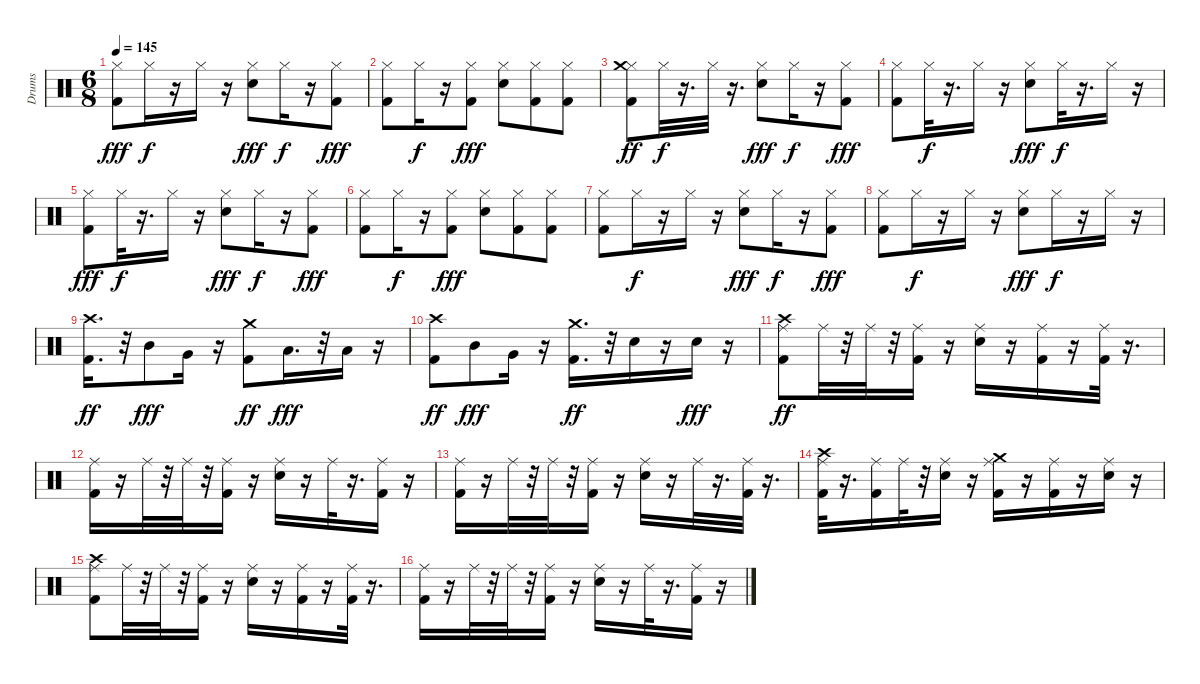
\track ("Drums" "Drums") {instrument percussion}
\staff {score}
\articulation defaults
\ts (6 8)
\tempo 145
\clef neutral
\ks c
("Kick (hit) 2" "Hi-Hat (closed)").8{dy fff} "Hi-Hat (closed)".16{dy f} r.16 "Hi-Hat (closed)".16 r.16 ("Snare (hit) 2" "Hi-Hat (closed)").8{dy fff} "Hi-Hat (closed)".16{dy f} r.16 ("Kick (hit) 2" "Hi-Hat (closed)").8{dy fff} |
("Kick (hit) 2" "Hi-Hat (closed)").8 "Hi-Hat (closed)".16{dy f} r.16 ("Kick (hit) 2" "Hi-Hat (closed)").8{dy fff} ("Snare (hit) 2" "Hi-Hat (closed)").8 ("Kick (hit) 2" "Hi-Hat (closed)").8 ("Kick (hit) 2" "Hi-Hat (closed)").8 |
("Kick (hit) 2" "Hi-Hat (closed)" "Crash medium (hit)").8{dy ff} "Hi-Hat (closed)".32{dy f} r.16{d} "Hi-Hat (closed)".32 r.16{d} ("Snare (hit) 2" "Hi-Hat (closed)").8{dy fff} "Hi-Hat (closed)".16{dy f} r.16 ("Kick (hit) 2" "Hi-Hat (closed)").8{dy fff} |
("Kick (hit) 2" "Hi-Hat (closed)").8 "Hi-Hat (closed)".32{dy f} r.16{d} "Hi-Hat (closed)".16 r.16 ("Snare (hit) 2" "Hi-Hat (closed)").8{dy fff} "Hi-Hat (closed)".32{dy f} r.16{d} "Hi-Hat (closed)".16 r.16 |
("Kick (hit) 2" "Hi-Hat (closed)").8{dy fff} "Hi-Hat (closed)".32{dy f} r.16{d} "Hi-Hat (closed)".16 r.16 ("Snare (hit) 2" "Hi-Hat (closed)").8{dy fff} "Hi-Hat (closed)".16{dy f} r.16 ("Kick (hit) 2" "Hi-Hat (closed)").8{dy fff} |
("Kick (hit) 2" "Hi-Hat (closed)").8 "Hi-Hat (closed)".16{dy f} r.16 ("Kick (hit) 2" "Hi-Hat (closed)").8{dy fff} ("Snare (hit) 2" "Hi-Hat (closed)").8 ("Kick (hit) 2" "Hi-Hat (closed)").8 ("Kick (hit) 2" "Hi-Hat (closed)").8 |
("Kick (hit) 2" "Hi-Hat (closed)").8 "Hi-Hat (closed)".16{dy f} r.16 "Hi-Hat (closed)".16 r.16 ("Snare (hit) 2" "Hi-Hat (closed)").8{dy fff} "Hi-Hat (closed)".16{dy f} r.16 ("Kick (hit) 2" "Hi-Hat (closed)").8{dy fff} |
("Kick (hit) 2" "Hi-Hat (closed)").8 "Hi-Hat (closed)".16{dy f} r.16 "Hi-Hat (closed)".16 r.16 ("Snare (hit) 2" "Hi-Hat (closed)").8{dy fff} "Hi-Hat (closed)".16{dy f} r.16 "Hi-Hat (closed)".16 r.16 |
("Kick (hit) 2" "Crash high (hit)").16{d dy ff} r.32 "Mid Tom (hit)".8{dy fff} "Very Low Tom (hit)".16 r.16 ("Kick (hit) 2" "Crash medium (hit)").8{dy ff} "Low Tom (hit)".16{d dy fff} r.32 "Low Floor Tom (hit)".16 r.16 |
("Kick (hit) 2" "Crash high (hit)").8{dy ff} "Mid Tom (hit)".8{dy fff} "Very Low Tom (hit)".16 r.16 ("Kick (hit) 2" "Crash medium (hit)").16{d dy ff} r.32 "Snare (hit) 2".16 r.16 "Snare (hit) 2".16{dy fff} r.16 |
("Kick (hit) 2" "Ride (middle)" "Crash high (hit)").8{dy ff} "Ride (middle)".32 r.32 "Ride (middle)".32 r.32 ("Kick (hit) 2" "Ride (middle)").16 r.16 ("Snare (hit) 2" "Ride (middle)").16 r.16 ("Kick (hit) 2" "Ride (middle)").16 r.16 ("Kick (hit) 2" "Ride (middle)").32 r.16{d} |
("Kick (hit) 2" "Ride (middle)").16 r.16 "Ride (middle)".32 r.32 "Ride (middle)".32 r.32 ("Kick (hit) 2" "Ride (middle)").16 r.16 ("Snare (hit) 2" "Ride (middle)").16 r.16 "Ride (middle)".32 r.16{d} ("Kick (hit) 2" "Ride (middle)").16 r.16 |
("Kick (hit) 2" "Ride (middle)").16 r.16 "Ride (middle)".32 r.32 "Ride (middle)".32 r.32 ("Kick (hit) 2" "Ride (middle)").16 r.16 ("Snare (hit) 2" "Ride (middle)").16 r.16 "Ride (middle)".32 r.16{d} ("Kick (hit) 2" "Ride (middle)").32 r.16{d} |
("Kick (hit) 2" "Ride (middle)" "Crash high (hit)").32 r.16{d} ("Kick (hit) 2" "Ride (middle)").16 "Ride (middle)".32 r.32 ("Snare (hit) 2" "Ride (middle)").16 r.16 ("Kick (hit) 2" "Ride (middle)" "Crash medium (hit)").16 r.16 ("Kick (hit) 2" "Ride (middle)").16 r.16 ("Snare (hit) 2" "Ride (middle)").16 r.16 |
("Kick (hit) 2" "Ride (middle)" "Crash high (hit)").8 "Ride (middle)".32 r.32 "Ride (middle)".32 r.32 ("Kick (hit) 2" "Ride (middle)").16 r.16 ("Snare (hit) 2" "Ride (middle)").16 r.16 ("Kick (hit) 2" "Ride (middle)").16 r.16 ("Kick (hit) 2" "Ride (middle)").32 r.16{d} |
("Kick (hit) 2" "Ride (middle)").16 r.16 "Ride (middle)".32 r.32 "Ride (middle)".32 r.32 ("Kick (hit) 2" "Ride (middle)").16 r.16 ("Snare (hit) 2" "Ride (middle)").16 r.16 "Ride (middle)".32 r.16{d} ("Kick (hit) 2" "Ride (middle)").16 r.16
